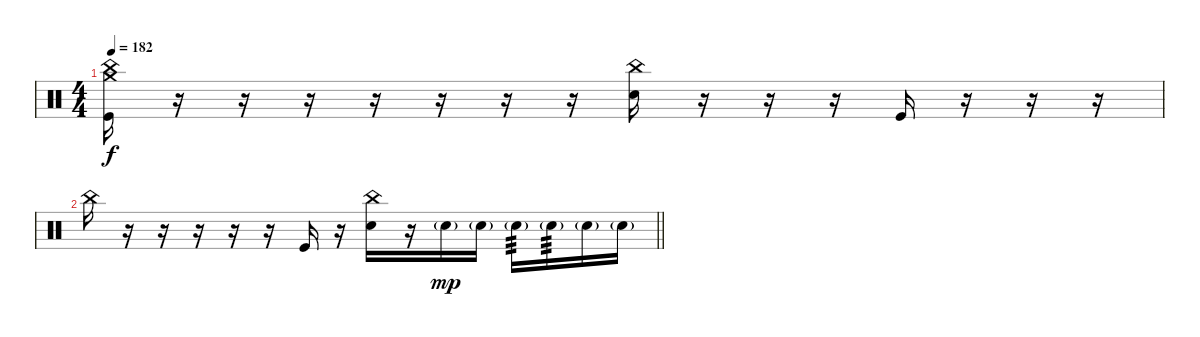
\track "" {instrument percussion}
\staff {score}
\articulation defaults
\ts (4 4)
\tempo 182
\clef neutral
\ks c
("Crash medium (hit)" "Kick (hit)" "China (hit)").16{dy f} r.16 r.16 r.16 r.16 r.16 r.16 r.16 ("China (hit)" "Electric Snare (hit)").16 r.16 r.16 r.16 "Kick (hit)".16 r.16 r.16 r.16 |
\barLineRight lightlight "China (hit)".16
r.16 r.16 r.16 r.16 r.16 "Kick (hit)".16 r.16 ("China (hit)" "Electric Snare (hit)").16 r.16 "Electric Snare (hit)"{g}.16{dy mp} "Electric Snare (hit)"{g}.16 "Electric Snare (hit)"{g}.16{tp 3} "Electric Snare (hit)"{g}.16{tp 3} "Electric Snare (hit)"{g}.16 "Electric Snare (hit)"{g}.16
